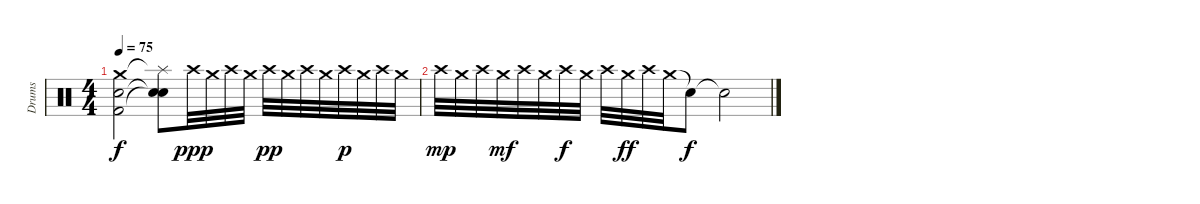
\track ("Drums" "Drums") {instrument percussion}
\staff {score}
\articulation defaults
\ts (4 4)
\tempo 75
\clef neutral
\ks c
("Crash medium (hit)" "Snare (hit) 2" "Kick (hit) 2").2{dy f} ("Splash (hit)"{t} "Snare (hit)"{t} "Snare (hit)"{t}).8 "Crash high (hit)".32{dy ppp} "Crash medium (hit)".32 "Crash high (hit)".32 "Crash medium (hit)".32 "Crash high (hit)".32{dy pp} "Crash medium (hit)".32 "Crash high (hit)".32 "Crash medium (hit)".32 "Crash high (hit)".32{dy p} "Crash medium (hit)".32 "Crash high (hit)".32 "Crash medium (hit)".32 |
"Crash high (hit)".32{dy mp} "Crash medium (hit)".32 "Crash high (hit)".32 "Crash medium (hit)".32{dy mf} "Crash high (hit)".32 "Crash medium (hit)".32 "Crash high (hit)".32{dy f} "Crash medium (hit)".32 "Crash high (hit)".32 "Crash medium (hit)".32{dy ff} "Crash high (hit)".32 "Crash medium (hit)".32 "Snare (hit)"{t}.8{dy f} "Snare (hit)"{t}.2
